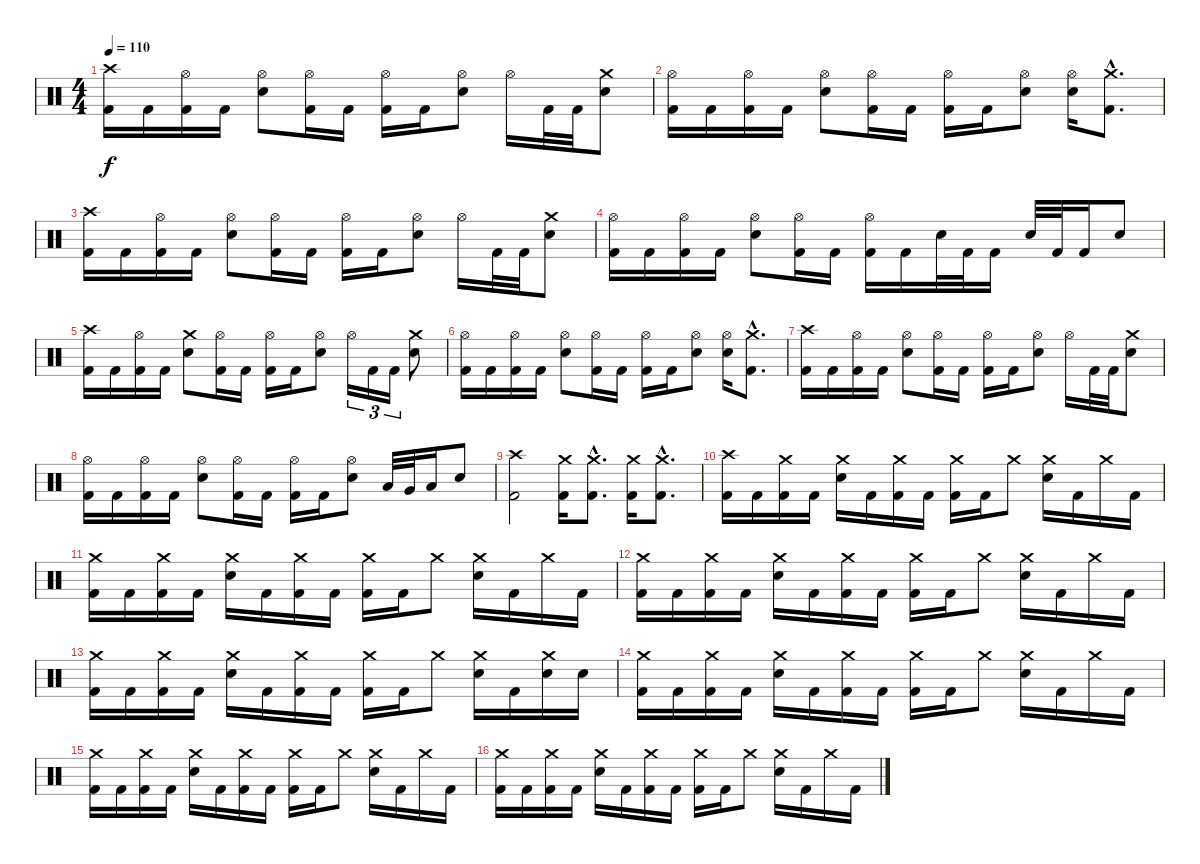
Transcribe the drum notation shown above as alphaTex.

\track "" {instrument percussion}
\staff {score}
\articulation defaults
\ts (4 4)
\tempo 110
\clef neutral
\ks c
("Crash high (hit)" "Kick (hit) 2").16{dy f} "Kick (hit) 2".16 ("Hi-Hat (open)" "Kick (hit) 2").16 "Kick (hit) 2".16 ("Hi-Hat (open)" "Electric Snare (hit)").8 ("Hi-Hat (open)" "Kick (hit) 2").16 "Kick (hit) 2".16 ("Hi-Hat (open)" "Kick (hit) 2").16 "Kick (hit) 2".16 ("Hi-Hat (open)" "Electric Snare (hit)").8 "Hi-Hat (open)".16 "Kick (hit) 2".32 "Kick (hit) 2".32 ("Crash medium (hit)" "Electric Snare (hit)").8 |
("Hi-Hat (open)" "Kick (hit) 2").16 "Kick (hit) 2".16 ("Hi-Hat (open)" "Kick (hit) 2").16 "Kick (hit) 2".16 ("Hi-Hat (open)" "Electric Snare (hit)").8 ("Hi-Hat (open)" "Kick (hit) 2").16 "Kick (hit) 2".16 ("Hi-Hat (open)" "Kick (hit) 2").16 "Kick (hit) 2".16 ("Hi-Hat (open)" "Electric Snare (hit)").8 ("Hi-Hat (open)" "Electric Snare (hit)").16 ("Crash medium (hit)"{hac} "Kick (hit) 2"{hac}).8{d} |
("Crash high (hit)" "Kick (hit) 2").16 "Kick (hit) 2".16 ("Hi-Hat (open)" "Kick (hit) 2").16 "Kick (hit) 2".16 ("Hi-Hat (open)" "Electric Snare (hit)").8 ("Hi-Hat (open)" "Kick (hit) 2").16 "Kick (hit) 2".16 ("Hi-Hat (open)" "Kick (hit) 2").16 "Kick (hit) 2".16 ("Hi-Hat (open)" "Electric Snare (hit)").8 "Hi-Hat (open)".16 "Kick (hit) 2".32 "Kick (hit) 2".32 ("Crash medium (hit)" "Electric Snare (hit)").8 |
("Hi-Hat (open)" "Kick (hit) 2").16 "Kick (hit) 2".16 ("Hi-Hat (open)" "Kick (hit) 2").16 "Kick (hit) 2".16 ("Hi-Hat (open)" "Electric Snare (hit)").8 ("Hi-Hat (open)" "Kick (hit) 2").16 "Kick (hit) 2".16 ("Hi-Hat (open)" "Kick (hit) 2").16 "Kick (hit) 2".16 "Electric Snare (hit)".32 "Kick (hit) 2".32 "Kick (hit) 2".16 "Electric Snare (hit)".32 "Kick (hit) 2".32 "Kick (hit) 2".16 "Electric Snare (hit)".8 |
("Crash high (hit)" "Kick (hit) 2").16 "Kick (hit) 2".16 ("Hi-Hat (open)" "Kick (hit) 2").16 "Kick (hit) 2".16 ("Crash medium (hit)" "Electric Snare (hit)").8 ("Hi-Hat (open)" "Kick (hit) 2").16 "Kick (hit) 2".16 ("Hi-Hat (open)" "Kick (hit) 2").16 "Kick (hit) 2".16 ("Hi-Hat (open)" "Electric Snare (hit)").8 "Hi-Hat (open)".16{tu (3 2)} "Kick (hit) 2".16{tu (3 2)} "Kick (hit) 2".16{tu (3 2)} ("Crash medium (hit)" "Electric Snare (hit)").8 |
("Hi-Hat (open)" "Kick (hit) 2").16 "Kick (hit) 2".16 ("Hi-Hat (open)" "Kick (hit) 2").16 "Kick (hit) 2".16 ("Hi-Hat (open)" "Electric Snare (hit)").8 ("Hi-Hat (open)" "Kick (hit) 2").16 "Kick (hit) 2".16 ("Hi-Hat (open)" "Kick (hit) 2").16 "Kick (hit) 2".16 ("Hi-Hat (open)" "Electric Snare (hit)").8 ("Hi-Hat (open)" "Electric Snare (hit)").16 ("Crash medium (hit)"{hac} "Kick (hit) 2"{hac}).8{d} |
("Crash high (hit)" "Kick (hit) 2").16 "Kick (hit) 2".16 ("Hi-Hat (open)" "Kick (hit) 2").16 "Kick (hit) 2".16 ("Hi-Hat (open)" "Electric Snare (hit)").8 ("Hi-Hat (open)" "Kick (hit) 2").16 "Kick (hit) 2".16 ("Hi-Hat (open)" "Kick (hit) 2").16 "Kick (hit) 2".16 ("Hi-Hat (open)" "Electric Snare (hit)").8 "Hi-Hat (open)".16 "Kick (hit) 2".32 "Kick (hit) 2".32 ("Crash medium (hit)" "Electric Snare (hit)").8 |
("Hi-Hat (open)" "Kick (hit) 2").16 "Kick (hit) 2".16 ("Hi-Hat (open)" "Kick (hit) 2").16 "Kick (hit) 2".16 ("Hi-Hat (open)" "Electric Snare (hit)").8 ("Hi-Hat (open)" "Kick (hit) 2").16 "Kick (hit) 2".16 ("Hi-Hat (open)" "Kick (hit) 2").16 "Kick (hit) 2".16 ("Hi-Hat (open)" "Electric Snare (hit)").8 "Low Tom (hit)".32 "Very Low Tom (hit)".32 "Low Floor Tom (hit)".16 "Electric Snare (hit)".8 |
("Crash high (hit)" "Kick (hit) 2").2 ("Crash medium (hit)" "Kick (hit) 2").16 ("Crash medium (hit)"{hac} "Kick (hit) 2"{hac}).8{d} ("Crash medium (hit)" "Kick (hit) 2").16 ("Crash medium (hit)"{hac} "Kick (hit) 2"{hac}).8{d} |
("Crash high (hit)" "Kick (hit) 2").16 "Kick (hit) 2".16 ("Crash medium (hit)" "Kick (hit) 2").16 "Kick (hit) 2".16 ("Crash medium (hit)" "Electric Snare (hit)").16 "Kick (hit) 2".16 ("Crash medium (hit)" "Kick (hit) 2").16 "Kick (hit) 2".16 ("Crash medium (hit)" "Kick (hit) 2").16 "Kick (hit) 2".16 "Crash medium (hit)".8 ("Crash medium (hit)" "Electric Snare (hit)").16 "Kick (hit) 2".16 "Crash medium (hit)".16 "Kick (hit) 2".16 |
("Crash medium (hit)" "Kick (hit) 2").16 "Kick (hit) 2".16 ("Crash medium (hit)" "Kick (hit) 2").16 "Kick (hit) 2".16 ("Crash medium (hit)" "Electric Snare (hit)").16 "Kick (hit) 2".16 ("Crash medium (hit)" "Kick (hit) 2").16 "Kick (hit) 2".16 ("Crash medium (hit)" "Kick (hit) 2").16 "Kick (hit) 2".16 "Crash medium (hit)".8 ("Crash medium (hit)" "Electric Snare (hit)").16 "Kick (hit) 2".16 "Crash medium (hit)".16 "Kick (hit) 2".16 |
("Crash medium (hit)" "Kick (hit) 2").16 "Kick (hit) 2".16 ("Crash medium (hit)" "Kick (hit) 2").16 "Kick (hit) 2".16 ("Crash medium (hit)" "Electric Snare (hit)").16 "Kick (hit) 2".16 ("Crash medium (hit)" "Kick (hit) 2").16 "Kick (hit) 2".16 ("Crash medium (hit)" "Kick (hit) 2").16 "Kick (hit) 2".16 "Crash medium (hit)".8 ("Crash medium (hit)" "Electric Snare (hit)").16 "Kick (hit) 2".16 "Crash medium (hit)".16 "Kick (hit) 2".16 |
("Crash medium (hit)" "Kick (hit) 2").16 "Kick (hit) 2".16 ("Crash medium (hit)" "Kick (hit) 2").16 "Kick (hit) 2".16 ("Crash medium (hit)" "Electric Snare (hit)").16 "Kick (hit) 2".16 ("Crash medium (hit)" "Kick (hit) 2").16 "Kick (hit) 2".16 ("Crash medium (hit)" "Kick (hit) 2").16 "Kick (hit) 2".16 "Crash medium (hit)".8 ("Crash medium (hit)" "Electric Snare (hit)").16 "Kick (hit) 2".16 ("Crash medium (hit)" "Electric Snare (hit)").16 "Electric Snare (hit)".16 |
("Crash medium (hit)" "Kick (hit) 2").16 "Kick (hit) 2".16 ("Crash medium (hit)" "Kick (hit) 2").16 "Kick (hit) 2".16 ("Crash medium (hit)" "Electric Snare (hit)").16 "Kick (hit) 2".16 ("Crash medium (hit)" "Kick (hit) 2").16 "Kick (hit) 2".16 ("Crash medium (hit)" "Kick (hit) 2").16 "Kick (hit) 2".16 "Crash medium (hit)".8 ("Crash medium (hit)" "Electric Snare (hit)").16 "Kick (hit) 2".16 "Crash medium (hit)".16 "Kick (hit) 2".16 |
("Crash medium (hit)" "Kick (hit) 2").16 "Kick (hit) 2".16 ("Crash medium (hit)" "Kick (hit) 2").16 "Kick (hit) 2".16 ("Crash medium (hit)" "Electric Snare (hit)").16 "Kick (hit) 2".16 ("Crash medium (hit)" "Kick (hit) 2").16 "Kick (hit) 2".16 ("Crash medium (hit)" "Kick (hit) 2").16 "Kick (hit) 2".16 "Crash medium (hit)".8 ("Crash medium (hit)" "Electric Snare (hit)").16 "Kick (hit) 2".16 "Crash medium (hit)".16 "Kick (hit) 2".16 |
("Crash medium (hit)" "Kick (hit) 2").16 "Kick (hit) 2".16 ("Crash medium (hit)" "Kick (hit) 2").16 "Kick (hit) 2".16 ("Crash medium (hit)" "Electric Snare (hit)").16 "Kick (hit) 2".16 ("Crash medium (hit)" "Kick (hit) 2").16 "Kick (hit) 2".16 ("Crash medium (hit)" "Kick (hit) 2").16 "Kick (hit) 2".16 "Crash medium (hit)".8 ("Crash medium (hit)" "Electric Snare (hit)").16 "Kick (hit) 2".16 "Crash medium (hit)".16 "Kick (hit) 2".16
